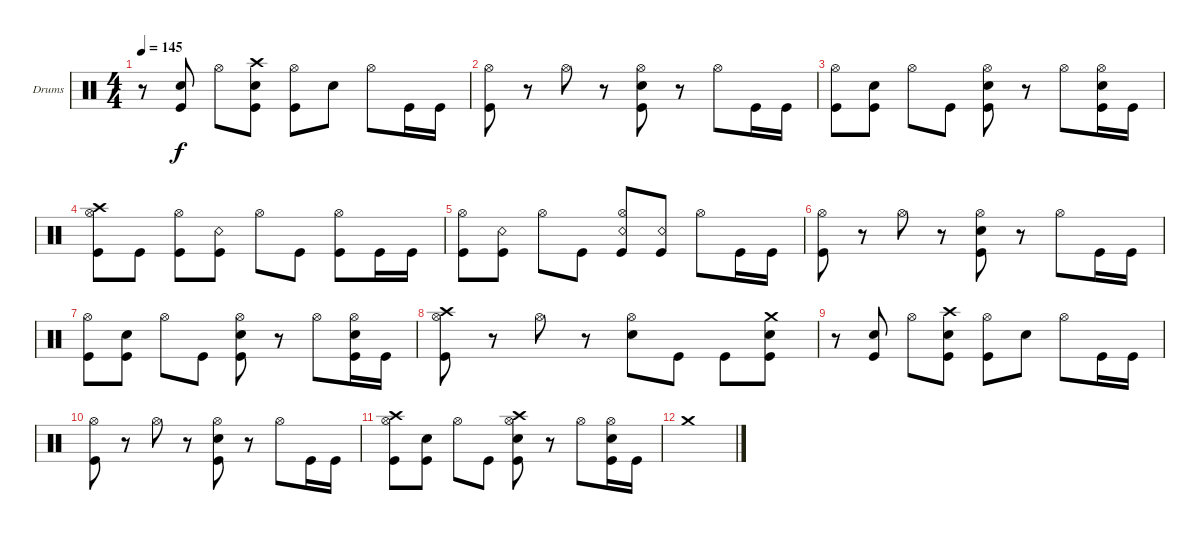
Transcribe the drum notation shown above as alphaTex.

\bracketExtendMode groupsimilarinstruments
\firstSystemTrackNameOrientation horizontal
\otherSystemsTrackNameOrientation horizontal
\track ("Kaleb - Drums" "Drums") {instrument percussion}
\staff {score}
\articulation defaults
\ts (4 4)
\tempo 145
\clef neutral
\ks c
r.8{dy f} ("Kick (hit)" "Snare (hit) 2").8 "Hi-Hat (open)".8 ("Kick (hit)" "Snare (hit) 2" "Crash high (hit)").8 ("Kick (hit)" "Hi-Hat (open)").8 "Snare (hit) 2".8 "Hi-Hat (open)".8 "Kick (hit)".16 "Kick (hit)".16 |
("Kick (hit)" "Hi-Hat (open)").8 r.8 "Hi-Hat (open)".8 r.8 ("Kick (hit)" "Hi-Hat (open)" "Snare (hit) 2").8 r.8 "Hi-Hat (open)".8 "Kick (hit)".16 "Kick (hit)".16 |
("Kick (hit)" "Hi-Hat (open)").8 ("Kick (hit)" "Snare (hit) 2").8 "Hi-Hat (open)".8 "Kick (hit)".8 ("Kick (hit)" "Hi-Hat (open)" "Snare (hit) 2").8 r.8 "Hi-Hat (open)".8 ("Kick (hit)" "Hi-Hat (open)" "Snare (hit) 2").16 "Kick (hit)".16 |
("Kick (hit)" "Hi-Hat (open)" "Crash high (hit)").8 "Kick (hit)".8 ("Hi-Hat (open)" "Kick (hit)").8 ("Kick (hit)" "Snare (rim shot)").8 "Hi-Hat (open)".8 "Kick (hit)".8 ("Hi-Hat (open)" "Kick (hit)").8 "Kick (hit)".16 "Kick (hit)".16 |
("Kick (hit)" "Hi-Hat (open)").8 ("Kick (hit)" "Snare (rim shot)").8 "Hi-Hat (open)".8 "Kick (hit)".8 ("Kick (hit)" "Hi-Hat (open)" "Snare (rim shot)").8 ("Kick (hit)" "Snare (rim shot)").8 "Hi-Hat (open)".8 "Kick (hit)".16 "Kick (hit)".16 |
("Kick (hit)" "Hi-Hat (open)").8 r.8 "Hi-Hat (open)".8 r.8 ("Kick (hit)" "Hi-Hat (open)" "Snare (hit) 2").8 r.8 "Hi-Hat (open)".8 "Kick (hit)".16 "Kick (hit)".16 |
("Kick (hit)" "Hi-Hat (open)").8 ("Kick (hit)" "Snare (hit) 2").8 "Hi-Hat (open)".8 "Kick (hit)".8 ("Kick (hit)" "Hi-Hat (open)" "Snare (hit) 2").8 r.8 "Hi-Hat (open)".8 ("Kick (hit)" "Hi-Hat (open)" "Snare (hit) 2").16 "Kick (hit)".16 |
("Kick (hit)" "Hi-Hat (open)" "Crash high (hit)").8 r.8 "Hi-Hat (open)".8 r.8 ("Snare (hit) 2" "Hi-Hat (open)").8 "Kick (hit)".8 "Kick (hit)".8 ("Snare (hit) 2" "Kick (hit)" "Crash medium (hit)").8 |
r.8 ("Kick (hit)" "Snare (hit) 2").8 "Hi-Hat (open)".8 ("Kick (hit)" "Snare (hit) 2" "Crash high (hit)").8 ("Kick (hit)" "Hi-Hat (open)").8 "Snare (hit) 2".8 "Hi-Hat (open)".8 "Kick (hit)".16 "Kick (hit)".16 |
("Kick (hit)" "Hi-Hat (open)").8 r.8 "Hi-Hat (open)".8 r.8 ("Kick (hit)" "Hi-Hat (open)" "Snare (hit) 2").8 r.8 "Hi-Hat (open)".8 "Kick (hit)".16 "Kick (hit)".16 |
("Kick (hit)" "Hi-Hat (open)" "Crash high (hit)").8 ("Kick (hit)" "Snare (hit) 2").8 "Hi-Hat (open)".8 "Kick (hit)".8 ("Kick (hit)" "Hi-Hat (open)" "Snare (hit) 2" "Crash high (hit)").8 r.8 "Hi-Hat (open)".8 ("Kick (hit)" "Snare (hit) 2" "Hi-Hat (open)").16 "Kick (hit)".16 |
"Crash medium (hit)".1
